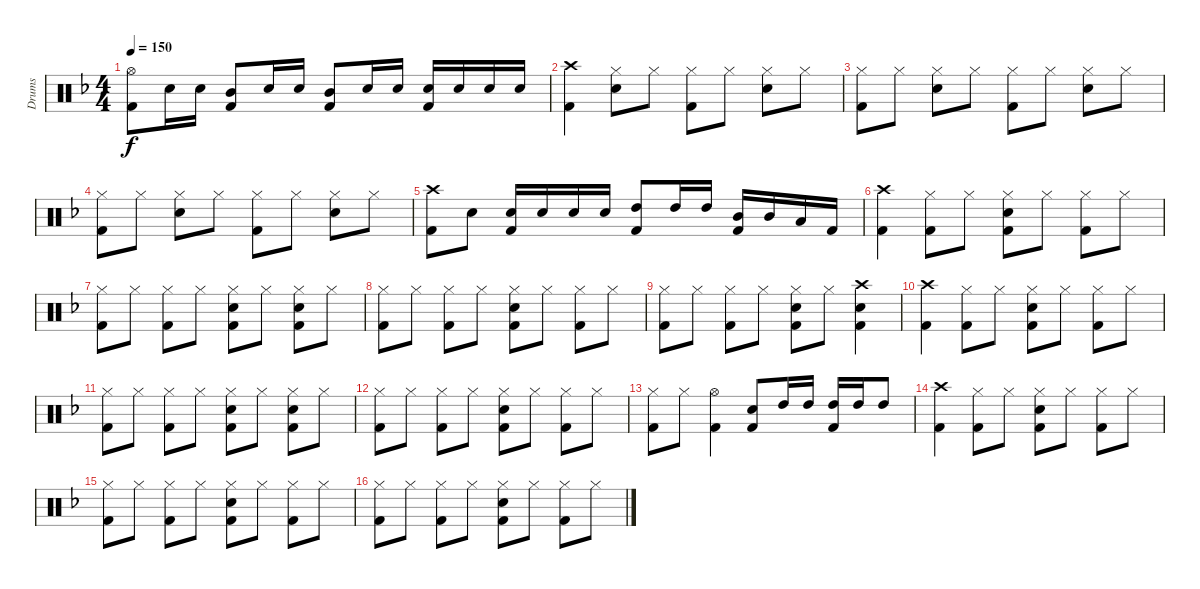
\track ("Drums" "Drums") {instrument percussion}
\staff {score}
\articulation defaults
\ts (4 4)
\tempo 150
\clef neutral
\ks f
("Hi-Hat (open)" "Kick (hit) 2").8{dy f} "Electric Snare (hit)".16 "Electric Snare (hit)".16 ("Mid Tom (hit)" "Kick (hit) 2").8 "Electric Snare (hit)".16 "Electric Snare (hit)".16 ("Mid Tom (hit)" "Kick (hit) 2").8 "Electric Snare (hit)".16 "Electric Snare (hit)".16 ("Electric Snare (hit)" "Kick (hit) 2").16 "Electric Snare (hit)".16 "Electric Snare (hit)".16 "Electric Snare (hit)".16 |
("Crash high (hit)" "Kick (hit) 2").4 ("Hi-Hat (closed)" "Electric Snare (hit)").8 "Hi-Hat (closed)".8 ("Hi-Hat (closed)" "Kick (hit) 2").8 "Hi-Hat (closed)".8 ("Hi-Hat (closed)" "Electric Snare (hit)").8 "Hi-Hat (closed)".8 |
("Hi-Hat (closed)" "Kick (hit) 2").8 "Hi-Hat (closed)".8 ("Hi-Hat (closed)" "Electric Snare (hit)").8 "Hi-Hat (closed)".8 ("Hi-Hat (closed)" "Kick (hit) 2").8 "Hi-Hat (closed)".8 ("Hi-Hat (closed)" "Electric Snare (hit)").8 "Hi-Hat (closed)".8 |
("Hi-Hat (closed)" "Kick (hit) 2").8 "Hi-Hat (closed)".8 ("Hi-Hat (closed)" "Electric Snare (hit)").8 "Hi-Hat (closed)".8 ("Hi-Hat (closed)" "Kick (hit) 2").8 "Hi-Hat (closed)".8 ("Hi-Hat (closed)" "Electric Snare (hit)").8 "Hi-Hat (closed)".8 |
("Crash high (hit)" "Kick (hit) 2").8 "Electric Snare (hit)".8 ("Electric Snare (hit)" "Kick (hit) 2").16 "Electric Snare (hit)".16 "Electric Snare (hit)".16 "Electric Snare (hit)".16 ("High Tom (hit)" "Kick (hit) 2").8 "High Tom (hit)".16 "High Tom (hit)".16 ("Mid Tom (hit)" "Kick (hit) 2").16 "Mid Tom (hit)".16 "Low Tom (hit)".16 "Kick (hit) 2".16 |
("Crash high (hit)" "Kick (hit) 2").4 ("Hi-Hat (closed)" "Kick (hit) 2").8 "Hi-Hat (closed)".8 ("Hi-Hat (closed)" "Electric Snare (hit)" "Kick (hit) 2").8 "Hi-Hat (closed)".8 ("Hi-Hat (closed)" "Kick (hit) 2").8 "Hi-Hat (closed)".8 |
("Hi-Hat (closed)" "Kick (hit) 2").8 "Hi-Hat (closed)".8 ("Hi-Hat (closed)" "Kick (hit) 2").8 "Hi-Hat (closed)".8 ("Hi-Hat (closed)" "Electric Snare (hit)" "Kick (hit) 2").8 "Hi-Hat (closed)".8 ("Hi-Hat (closed)" "Electric Snare (hit)" "Kick (hit) 2").8 "Hi-Hat (closed)".8 |
("Hi-Hat (closed)" "Kick (hit) 2").8 "Hi-Hat (closed)".8 ("Hi-Hat (closed)" "Kick (hit) 2").8 "Hi-Hat (closed)".8 ("Hi-Hat (closed)" "Electric Snare (hit)" "Kick (hit) 2").8 "Hi-Hat (closed)".8 ("Hi-Hat (closed)" "Kick (hit) 2").8 "Hi-Hat (closed)".8 |
("Hi-Hat (closed)" "Kick (hit) 2").8 "Hi-Hat (closed)".8 ("Hi-Hat (closed)" "Kick (hit) 2").8 "Hi-Hat (closed)".8 ("Hi-Hat (closed)" "Electric Snare (hit)" "Kick (hit) 2").8 "Hi-Hat (closed)".8 ("Crash high (hit)" "Electric Snare (hit)" "Kick (hit) 2").4 |
("Crash high (hit)" "Kick (hit) 2").4 ("Hi-Hat (closed)" "Kick (hit) 2").8 "Hi-Hat (closed)".8 ("Hi-Hat (closed)" "Electric Snare (hit)" "Kick (hit) 2").8 "Hi-Hat (closed)".8 ("Hi-Hat (closed)" "Kick (hit) 2").8 "Hi-Hat (closed)".8 |
("Hi-Hat (closed)" "Kick (hit) 2").8 "Hi-Hat (closed)".8 ("Hi-Hat (closed)" "Kick (hit) 2").8 "Hi-Hat (closed)".8 ("Hi-Hat (closed)" "Electric Snare (hit)" "Kick (hit) 2").8 "Hi-Hat (closed)".8 ("Hi-Hat (closed)" "Electric Snare (hit)" "Kick (hit) 2").8 "Hi-Hat (closed)".8 |
("Hi-Hat (closed)" "Kick (hit) 2").8 "Hi-Hat (closed)".8 ("Hi-Hat (closed)" "Kick (hit) 2").8 "Hi-Hat (closed)".8 ("Hi-Hat (closed)" "Electric Snare (hit)" "Kick (hit) 2").8 "Hi-Hat (closed)".8 ("Hi-Hat (closed)" "Kick (hit) 2").8 "Hi-Hat (closed)".8 |
("Hi-Hat (closed)" "Kick (hit) 2").8 "Hi-Hat (closed)".8 ("Hi-Hat (open)" "Kick (hit) 2").4 ("Electric Snare (hit)" "Kick (hit) 2").8 "High Tom (hit)".16 "High Tom (hit)".16 ("High Tom (hit)" "Kick (hit) 2").16 "High Tom (hit)".16 "High Tom (hit)".8 |
("Crash high (hit)" "Kick (hit) 2").4 ("Hi-Hat (closed)" "Kick (hit) 2").8 "Hi-Hat (closed)".8 ("Hi-Hat (closed)" "Electric Snare (hit)" "Kick (hit) 2").8 "Hi-Hat (closed)".8 ("Hi-Hat (closed)" "Kick (hit) 2").8 "Hi-Hat (closed)".8 |
("Hi-Hat (closed)" "Kick (hit) 2").8 "Hi-Hat (closed)".8 ("Hi-Hat (closed)" "Kick (hit) 2").8 "Hi-Hat (closed)".8 ("Hi-Hat (closed)" "Electric Snare (hit)" "Kick (hit) 2").8 "Hi-Hat (closed)".8 ("Hi-Hat (closed)" "Kick (hit) 2").8 "Hi-Hat (closed)".8 |
("Hi-Hat (closed)" "Kick (hit) 2").8 "Hi-Hat (closed)".8 ("Hi-Hat (closed)" "Kick (hit) 2").8 "Hi-Hat (closed)".8 ("Hi-Hat (closed)" "Electric Snare (hit)" "Kick (hit) 2").8 "Hi-Hat (closed)".8 ("Hi-Hat (closed)" "Kick (hit) 2").8 "Hi-Hat (closed)".8
